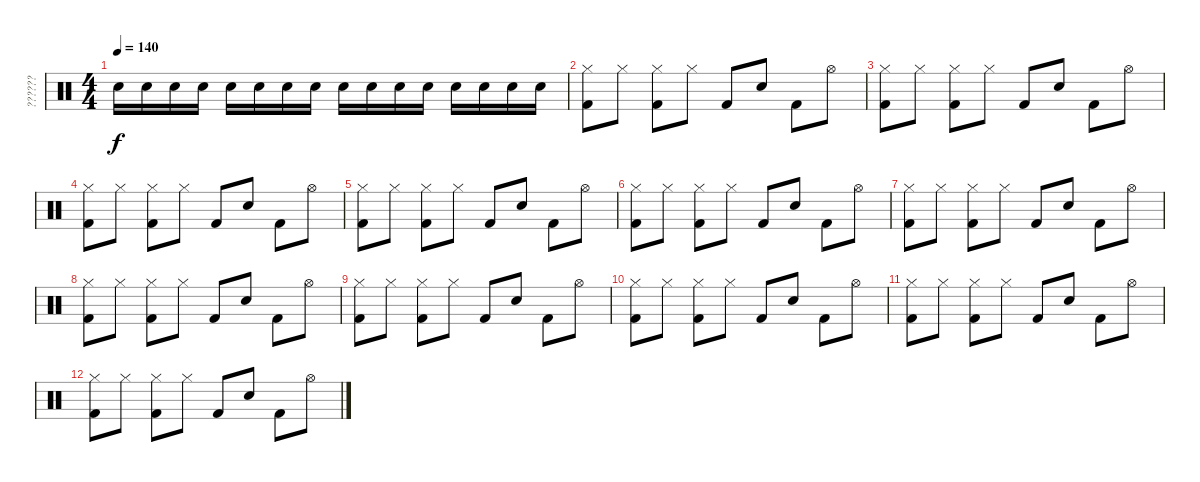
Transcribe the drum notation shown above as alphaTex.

\track ("??????" "??????") {instrument percussion}
\staff {score}
\articulation defaults
\ts (4 4)
\tempo 140
\clef neutral
\ks c "Snare (hit) 2".16{dy f} "Snare (hit) 2".16 "Snare (hit) 2".16 "Snare (hit) 2".16 "Snare (hit) 2".16 "Snare (hit) 2".16 "Snare (hit) 2".16 "Snare (hit) 2".16 "Snare (hit) 2".16 "Snare (hit) 2".16 "Snare (hit) 2".16 "Snare (hit) 2".16 "Snare (hit) 2".16 "Snare (hit) 2".16 "Snare (hit) 2".16 "Snare (hit) 2".16
|
("Hi-Hat (closed)" "Kick (hit) 2").8 "Hi-Hat (closed)".8 ("Hi-Hat (closed)" "Kick (hit) 2").8 "Hi-Hat (closed)".8 "Kick (hit) 2".8 "Snare (hit) 2".8 "Kick (hit) 2".8 "Hi-Hat (open)".8 |
("Hi-Hat (closed)" "Kick (hit) 2").8 "Hi-Hat (closed)".8 ("Hi-Hat (closed)" "Kick (hit) 2").8 "Hi-Hat (closed)".8 "Kick (hit) 2".8 "Snare (hit) 2".8 "Kick (hit) 2".8 "Hi-Hat (open)".8 |
("Hi-Hat (closed)" "Kick (hit) 2").8 "Hi-Hat (closed)".8 ("Hi-Hat (closed)" "Kick (hit) 2").8 "Hi-Hat (closed)".8 "Kick (hit) 2".8 "Snare (hit) 2".8 "Kick (hit) 2".8 "Hi-Hat (open)".8 |
("Hi-Hat (closed)" "Kick (hit) 2").8 "Hi-Hat (closed)".8 ("Hi-Hat (closed)" "Kick (hit) 2").8 "Hi-Hat (closed)".8 "Kick (hit) 2".8 "Snare (hit) 2".8 "Kick (hit) 2".8 "Hi-Hat (open)".8 |
("Hi-Hat (closed)" "Kick (hit) 2").8 "Hi-Hat (closed)".8 ("Hi-Hat (closed)" "Kick (hit) 2").8 "Hi-Hat (closed)".8 "Kick (hit) 2".8 "Snare (hit) 2".8 "Kick (hit) 2".8 "Hi-Hat (open)".8 |
("Hi-Hat (closed)" "Kick (hit) 2").8 "Hi-Hat (closed)".8 ("Hi-Hat (closed)" "Kick (hit) 2").8 "Hi-Hat (closed)".8 "Kick (hit) 2".8 "Snare (hit) 2".8 "Kick (hit) 2".8 "Hi-Hat (open)".8 |
("Hi-Hat (closed)" "Kick (hit) 2").8 "Hi-Hat (closed)".8 ("Hi-Hat (closed)" "Kick (hit) 2").8 "Hi-Hat (closed)".8 "Kick (hit) 2".8 "Snare (hit) 2".8 "Kick (hit) 2".8 "Hi-Hat (open)".8 |
("Hi-Hat (closed)" "Kick (hit) 2").8 "Hi-Hat (closed)".8 ("Hi-Hat (closed)" "Kick (hit) 2").8 "Hi-Hat (closed)".8 "Kick (hit) 2".8 "Snare (hit) 2".8 "Kick (hit) 2".8 "Hi-Hat (open)".8 |
("Hi-Hat (closed)" "Kick (hit) 2").8 "Hi-Hat (closed)".8 ("Hi-Hat (closed)" "Kick (hit) 2").8 "Hi-Hat (closed)".8 "Kick (hit) 2".8 "Snare (hit) 2".8 "Kick (hit) 2".8 "Hi-Hat (open)".8 |
("Hi-Hat (closed)" "Kick (hit) 2").8 "Hi-Hat (closed)".8 ("Hi-Hat (closed)" "Kick (hit) 2").8 "Hi-Hat (closed)".8 "Kick (hit) 2".8 "Snare (hit) 2".8 "Kick (hit) 2".8 "Hi-Hat (open)".8 |
("Hi-Hat (closed)" "Kick (hit) 2").8 "Hi-Hat (closed)".8 ("Hi-Hat (closed)" "Kick (hit) 2").8 "Hi-Hat (closed)".8 "Kick (hit) 2".8 "Snare (hit) 2".8 "Kick (hit) 2".8 "Hi-Hat (open)".8
